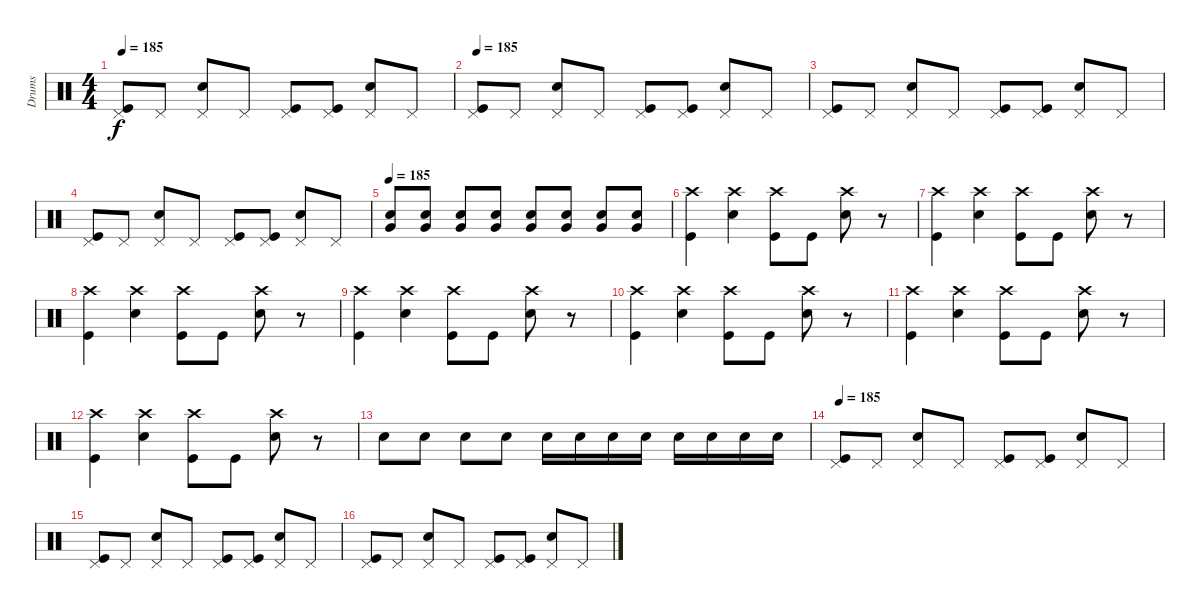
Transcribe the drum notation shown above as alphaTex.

\track ("Drums" "Drums") {instrument percussion}
\staff {score}
\articulation defaults
\ts (4 4)
\tempo 185
\clef neutral
\ks c
("Pedal Hi-Hat (hit)" "Kick (hit)").8{dy f} "Pedal Hi-Hat (hit)".8 ("Pedal Hi-Hat (hit)" "Electric Snare (hit)").8 "Pedal Hi-Hat (hit)".8 ("Pedal Hi-Hat (hit)" "Kick (hit)").8 ("Pedal Hi-Hat (hit)" "Kick (hit)").8 ("Pedal Hi-Hat (hit)" "Electric Snare (hit)").8 "Pedal Hi-Hat (hit)".8 |
\tempo 185
("Pedal Hi-Hat (hit)" "Kick (hit)").8 "Pedal Hi-Hat (hit)".8 ("Pedal Hi-Hat (hit)" "Electric Snare (hit)").8 "Pedal Hi-Hat (hit)".8 ("Pedal Hi-Hat (hit)" "Kick (hit)").8 ("Pedal Hi-Hat (hit)" "Kick (hit)").8 ("Pedal Hi-Hat (hit)" "Electric Snare (hit)").8 "Pedal Hi-Hat (hit)".8 |
("Pedal Hi-Hat (hit)" "Kick (hit)").8 "Pedal Hi-Hat (hit)".8 ("Pedal Hi-Hat (hit)" "Electric Snare (hit)").8 "Pedal Hi-Hat (hit)".8 ("Pedal Hi-Hat (hit)" "Kick (hit)").8 ("Pedal Hi-Hat (hit)" "Kick (hit)").8 ("Pedal Hi-Hat (hit)" "Electric Snare (hit)").8 "Pedal Hi-Hat (hit)".8 |
("Pedal Hi-Hat (hit)" "Kick (hit)").8 "Pedal Hi-Hat (hit)".8 ("Pedal Hi-Hat (hit)" "Electric Snare (hit)").8 "Pedal Hi-Hat (hit)".8 ("Pedal Hi-Hat (hit)" "Kick (hit)").8 ("Pedal Hi-Hat (hit)" "Kick (hit)").8 ("Pedal Hi-Hat (hit)" "Electric Snare (hit)").8 "Pedal Hi-Hat (hit)".8 |
\tempo 185
("Very Low Tom (hit)" "Electric Snare (hit)").8 ("Very Low Tom (hit)" "Electric Snare (hit)").8 ("Very Low Tom (hit)" "Electric Snare (hit)").8 ("Very Low Tom (hit)" "Electric Snare (hit)").8 ("Very Low Tom (hit)" "Electric Snare (hit)").8 ("Very Low Tom (hit)" "Electric Snare (hit)").8 ("Very Low Tom (hit)" "Electric Snare (hit)").8 ("Very Low Tom (hit)" "Electric Snare (hit)").8 |
("Crash high (hit)" "Kick (hit)").4 ("Crash high (hit)" "Electric Snare (hit)").4 ("Crash high (hit)" "Kick (hit)").8 "Kick (hit)".8 ("Crash high (hit)" "Electric Snare (hit)").8 r.8 |
("Crash high (hit)" "Kick (hit)").4 ("Crash high (hit)" "Electric Snare (hit)").4 ("Crash high (hit)" "Kick (hit)").8 "Kick (hit)".8 ("Crash high (hit)" "Electric Snare (hit)").8 r.8 |
("Crash high (hit)" "Kick (hit)").4 ("Crash high (hit)" "Electric Snare (hit)").4 ("Crash high (hit)" "Kick (hit)").8 "Kick (hit)".8 ("Crash high (hit)" "Electric Snare (hit)").8 r.8 |
("Crash high (hit)" "Kick (hit)").4 ("Crash high (hit)" "Electric Snare (hit)").4 ("Crash high (hit)" "Kick (hit)").8 "Kick (hit)".8 ("Crash high (hit)" "Electric Snare (hit)").8 r.8 |
("Crash high (hit)" "Kick (hit)").4 ("Crash high (hit)" "Electric Snare (hit)").4 ("Crash high (hit)" "Kick (hit)").8 "Kick (hit)".8 ("Crash high (hit)" "Electric Snare (hit)").8 r.8 |
("Crash high (hit)" "Kick (hit)").4 ("Crash high (hit)" "Electric Snare (hit)").4 ("Crash high (hit)" "Kick (hit)").8 "Kick (hit)".8 ("Crash high (hit)" "Electric Snare (hit)").8 r.8 |
("Crash high (hit)" "Kick (hit)").4 ("Crash high (hit)" "Electric Snare (hit)").4 ("Crash high (hit)" "Kick (hit)").8 "Kick (hit)".8 ("Crash high (hit)" "Electric Snare (hit)").8 r.8 |
"Electric Snare (hit)".8 "Electric Snare (hit)".8 "Electric Snare (hit)".8 "Electric Snare (hit)".8 "Electric Snare (hit)".16 "Electric Snare (hit)".16 "Electric Snare (hit)".16 "Electric Snare (hit)".16 "Electric Snare (hit)".16 "Electric Snare (hit)".16 "Electric Snare (hit)".16 "Electric Snare (hit)".16 |
\tempo 185
("Pedal Hi-Hat (hit)" "Kick (hit)").8 "Pedal Hi-Hat (hit)".8 ("Pedal Hi-Hat (hit)" "Electric Snare (hit)").8 "Pedal Hi-Hat (hit)".8 ("Pedal Hi-Hat (hit)" "Kick (hit)").8 ("Pedal Hi-Hat (hit)" "Kick (hit)").8 ("Pedal Hi-Hat (hit)" "Electric Snare (hit)").8 "Pedal Hi-Hat (hit)".8 |
("Pedal Hi-Hat (hit)" "Kick (hit)").8 "Pedal Hi-Hat (hit)".8 ("Pedal Hi-Hat (hit)" "Electric Snare (hit)").8 "Pedal Hi-Hat (hit)".8 ("Pedal Hi-Hat (hit)" "Kick (hit)").8 ("Pedal Hi-Hat (hit)" "Kick (hit)").8 ("Pedal Hi-Hat (hit)" "Electric Snare (hit)").8 "Pedal Hi-Hat (hit)".8 |
("Pedal Hi-Hat (hit)" "Kick (hit)").8 "Pedal Hi-Hat (hit)".8 ("Pedal Hi-Hat (hit)" "Electric Snare (hit)").8 "Pedal Hi-Hat (hit)".8 ("Pedal Hi-Hat (hit)" "Kick (hit)").8 ("Pedal Hi-Hat (hit)" "Kick (hit)").8 ("Pedal Hi-Hat (hit)" "Electric Snare (hit)").8 "Pedal Hi-Hat (hit)".8
